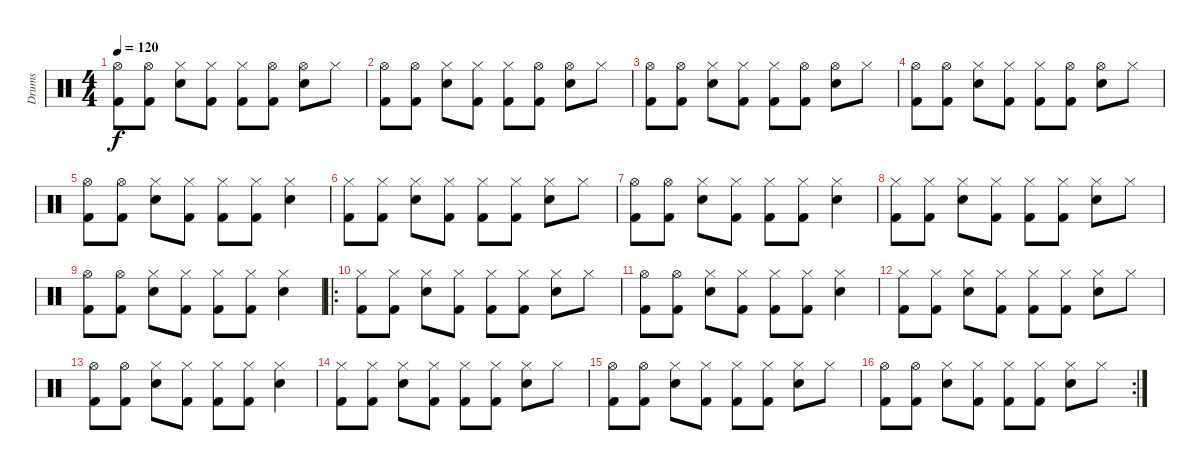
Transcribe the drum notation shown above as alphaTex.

\track ("Drums" "Drums") {instrument percussion}
\staff {score}
\articulation defaults
\ts (4 4)
\tempo 120
\clef neutral
\ks c
("Hi-Hat (open)" "Kick (hit) 2").8{dy f} ("Hi-Hat (open)" "Kick (hit) 2").8 ("Hi-Hat (closed)" "Electric Snare (hit)").8 ("Hi-Hat (closed)" "Kick (hit) 2").8 ("Hi-Hat (closed)" "Kick (hit) 2").8 ("Hi-Hat (open)" "Kick (hit) 2").8 ("Hi-Hat (open)" "Electric Snare (hit)").8 "Hi-Hat (closed)".8 |
("Hi-Hat (open)" "Kick (hit) 2").8 ("Hi-Hat (open)" "Kick (hit) 2").8 ("Hi-Hat (closed)" "Electric Snare (hit)").8 ("Hi-Hat (closed)" "Kick (hit) 2").8 ("Hi-Hat (closed)" "Kick (hit) 2").8 ("Hi-Hat (open)" "Kick (hit) 2").8 ("Hi-Hat (open)" "Electric Snare (hit)").8 "Hi-Hat (closed)".8 |
("Hi-Hat (open)" "Kick (hit) 2").8 ("Hi-Hat (open)" "Kick (hit) 2").8 ("Hi-Hat (closed)" "Electric Snare (hit)").8 ("Hi-Hat (closed)" "Kick (hit) 2").8 ("Hi-Hat (closed)" "Kick (hit) 2").8 ("Hi-Hat (open)" "Kick (hit) 2").8 ("Hi-Hat (open)" "Electric Snare (hit)").8 "Hi-Hat (closed)".8 |
("Hi-Hat (open)" "Kick (hit) 2").8 ("Hi-Hat (open)" "Kick (hit) 2").8 ("Hi-Hat (closed)" "Electric Snare (hit)").8 ("Hi-Hat (closed)" "Kick (hit) 2").8 ("Hi-Hat (closed)" "Kick (hit) 2").8 ("Hi-Hat (open)" "Kick (hit) 2").8 ("Hi-Hat (open)" "Electric Snare (hit)").8 "Hi-Hat (closed)".8 |
("Hi-Hat (open)" "Kick (hit) 2").8 ("Hi-Hat (open)" "Kick (hit) 2").8 ("Hi-Hat (closed)" "Electric Snare (hit)").8 ("Hi-Hat (closed)" "Kick (hit) 2").8 ("Hi-Hat (closed)" "Kick (hit) 2").8 ("Hi-Hat (closed)" "Kick (hit) 2").8 ("Hi-Hat (closed)" "Electric Snare (hit)").4 |
("Hi-Hat (closed)" "Kick (hit) 2").8 ("Hi-Hat (closed)" "Kick (hit) 2").8 ("Hi-Hat (closed)" "Electric Snare (hit)").8 ("Hi-Hat (closed)" "Kick (hit) 2").8 ("Hi-Hat (closed)" "Kick (hit) 2").8 ("Hi-Hat (closed)" "Kick (hit) 2").8 ("Hi-Hat (closed)" "Electric Snare (hit)").8 "Hi-Hat (closed)".8 |
("Hi-Hat (open)" "Kick (hit) 2").8 ("Hi-Hat (open)" "Kick (hit) 2").8 ("Hi-Hat (closed)" "Electric Snare (hit)").8 ("Hi-Hat (closed)" "Kick (hit) 2").8 ("Hi-Hat (closed)" "Kick (hit) 2").8 ("Hi-Hat (closed)" "Kick (hit) 2").8 ("Hi-Hat (closed)" "Electric Snare (hit)").4 |
("Hi-Hat (closed)" "Kick (hit) 2").8 ("Hi-Hat (closed)" "Kick (hit) 2").8 ("Hi-Hat (closed)" "Electric Snare (hit)").8 ("Hi-Hat (closed)" "Kick (hit) 2").8 ("Hi-Hat (closed)" "Kick (hit) 2").8 ("Hi-Hat (closed)" "Kick (hit) 2").8 ("Hi-Hat (closed)" "Electric Snare (hit)").8 "Hi-Hat (closed)".8 |
("Hi-Hat (open)" "Kick (hit) 2").8 ("Hi-Hat (open)" "Kick (hit) 2").8 ("Hi-Hat (closed)" "Electric Snare (hit)").8 ("Hi-Hat (closed)" "Kick (hit) 2").8 ("Hi-Hat (closed)" "Kick (hit) 2").8 ("Hi-Hat (closed)" "Kick (hit) 2").8 ("Hi-Hat (closed)" "Electric Snare (hit)").4 |
\ro
("Hi-Hat (closed)" "Kick (hit) 2").8 ("Hi-Hat (closed)" "Kick (hit) 2").8 ("Hi-Hat (closed)" "Electric Snare (hit)").8 ("Hi-Hat (closed)" "Kick (hit) 2").8 ("Hi-Hat (closed)" "Kick (hit) 2").8 ("Hi-Hat (closed)" "Kick (hit) 2").8 ("Hi-Hat (closed)" "Electric Snare (hit)").8 "Hi-Hat (closed)".8 |
("Hi-Hat (open)" "Kick (hit) 2").8 ("Hi-Hat (open)" "Kick (hit) 2").8 ("Hi-Hat (closed)" "Electric Snare (hit)").8 ("Hi-Hat (closed)" "Kick (hit) 2").8 ("Hi-Hat (closed)" "Kick (hit) 2").8 ("Hi-Hat (closed)" "Kick (hit) 2").8 ("Hi-Hat (closed)" "Electric Snare (hit)").4 |
("Hi-Hat (closed)" "Kick (hit) 2").8 ("Hi-Hat (closed)" "Kick (hit) 2").8 ("Hi-Hat (closed)" "Electric Snare (hit)").8 ("Hi-Hat (closed)" "Kick (hit) 2").8 ("Hi-Hat (closed)" "Kick (hit) 2").8 ("Hi-Hat (closed)" "Kick (hit) 2").8 ("Hi-Hat (closed)" "Electric Snare (hit)").8 "Hi-Hat (closed)".8 |
("Hi-Hat (open)" "Kick (hit) 2").8 ("Hi-Hat (open)" "Kick (hit) 2").8 ("Hi-Hat (closed)" "Electric Snare (hit)").8 ("Hi-Hat (closed)" "Kick (hit) 2").8 ("Hi-Hat (closed)" "Kick (hit) 2").8 ("Hi-Hat (closed)" "Kick (hit) 2").8 ("Hi-Hat (closed)" "Electric Snare (hit)").4 |
("Hi-Hat (closed)" "Kick (hit) 2").8 ("Hi-Hat (closed)" "Kick (hit) 2").8 ("Hi-Hat (closed)" "Electric Snare (hit)").8 ("Hi-Hat (closed)" "Kick (hit) 2").8 ("Hi-Hat (closed)" "Kick (hit) 2").8 ("Hi-Hat (closed)" "Kick (hit) 2").8 ("Hi-Hat (closed)" "Electric Snare (hit)").8 "Hi-Hat (closed)".8 |
("Hi-Hat (open)" "Kick (hit) 2").8 ("Hi-Hat (open)" "Kick (hit) 2").8 ("Hi-Hat (closed)" "Electric Snare (hit)").8 ("Hi-Hat (closed)" "Kick (hit) 2").8 ("Hi-Hat (closed)" "Kick (hit) 2").8 ("Hi-Hat (closed)" "Kick (hit) 2").8 ("Hi-Hat (closed)" "Electric Snare (hit)").8 "Hi-Hat (closed)".8 |
\rc 2
("Hi-Hat (open)" "Kick (hit) 2").8 ("Hi-Hat (open)" "Kick (hit) 2").8 ("Hi-Hat (closed)" "Electric Snare (hit)").8 ("Hi-Hat (closed)" "Kick (hit) 2").8 ("Hi-Hat (closed)" "Kick (hit) 2").8 ("Hi-Hat (closed)" "Kick (hit) 2").8 ("Hi-Hat (closed)" "Electric Snare (hit)").8 "Hi-Hat (closed)".8
